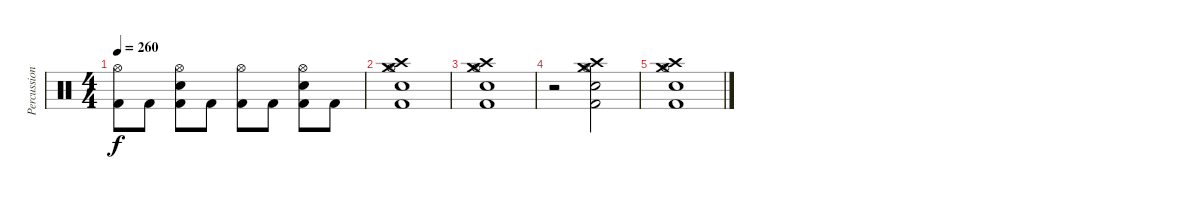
\track ("Percussion" "Percussion") {instrument percussion}
\staff {score}
\articulation defaults
\ts (4 4)
\tempo 260
\clef neutral
\ks c
("Hi-Hat (open)" "Kick (hit) 2").8{dy f} "Kick (hit) 2".8 ("Hi-Hat (open)" "Electric Snare (hit)" "Kick (hit) 2").8 "Kick (hit) 2".8 ("Hi-Hat (open)" "Kick (hit) 2").8 "Kick (hit) 2".8 ("Hi-Hat (open)" "Electric Snare (hit)" "Kick (hit) 2").8 "Kick (hit) 2".8 |
("Crash medium (hit)" "Crash high (hit)" "Hi-Hat (open)" "Electric Snare (hit)" "Kick (hit) 2").1 |
("Crash medium (hit)" "Crash high (hit)" "Hi-Hat (open)" "Electric Snare (hit)" "Kick (hit) 2").1 |
r.2 ("Crash medium (hit)" "Crash high (hit)" "Hi-Hat (open)" "Electric Snare (hit)" "Kick (hit) 2").2 |
("Crash medium (hit)" "Crash high (hit)" "Hi-Hat (open)" "Electric Snare (hit)" "Kick (hit) 2").1
